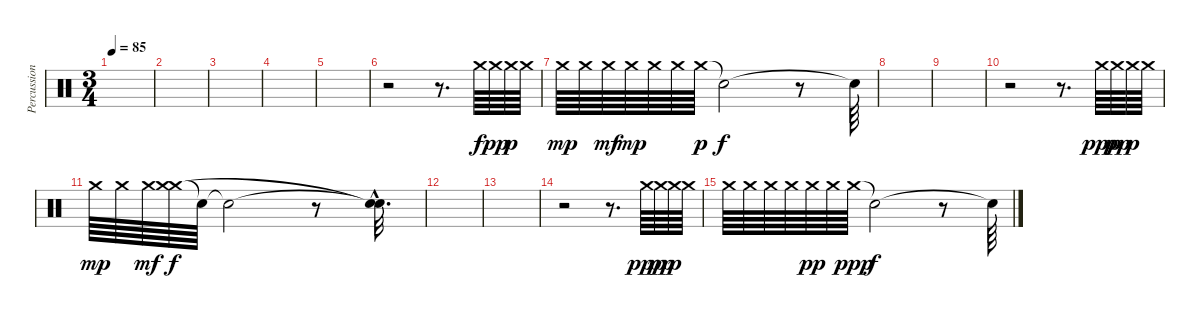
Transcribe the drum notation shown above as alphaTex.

\track ("Percussion" "Percussion") {instrument percussion}
\staff {score}
\articulation defaults
\ts (3 4)
\tempo 85
\clef neutral
\ks c
|
|
|
|
|
r.2 r.8{d} "Crash medium (hit)".64 "Crash medium (hit)".64{dy pp} "Crash medium (hit)".64{dy p} "Crash medium (hit)".64 |
"Crash medium (hit)".64{dy mp} "Crash medium (hit)".64 "Crash medium (hit)".64{dy mf} "Crash medium (hit)".64{dy mp} "Crash medium (hit)".64 "Crash medium (hit)".64 "Crash medium (hit)".64{dy p} "Snare (hit)"{t}.2{dy f} r.8 "Snare (hit)"{t}.64 |
|
|
r.2 r.8{d} "Crash medium (hit)".64{dy ppp} "Crash medium (hit)".64{dy pp} "Crash medium (hit)".64{dy p} "Crash medium (hit)".64 |
"Crash medium (hit)".64{dy mp} "Crash medium (hit)".64 "Crash medium (hit)".64{dy mf} ("Crash medium (hit)" "Crash medium (hit)").64{dy f} "Snare (hit)"{t}.64 "Snare (hit)"{t}.2 r.8 ("Snare (hit)"{hac t} "Snare (hit)"{hac t}).32{d} |
|
|
r.2 r.8{d} "Crash medium (hit)".64{dy ppp} "Crash medium (hit)".64{dy pp} "Crash medium (hit)".64{dy p} "Crash medium (hit)".64 |
"Crash medium (hit)".64 "Crash medium (hit)".64 "Crash medium (hit)".64 "Crash medium (hit)".64 "Crash medium (hit)".64{dy pp} "Crash medium (hit)".64 "Crash medium (hit)".64{dy ppp} "Snare (hit)"{t}.2{dy f} r.8 "Snare (hit)"{t}.64
